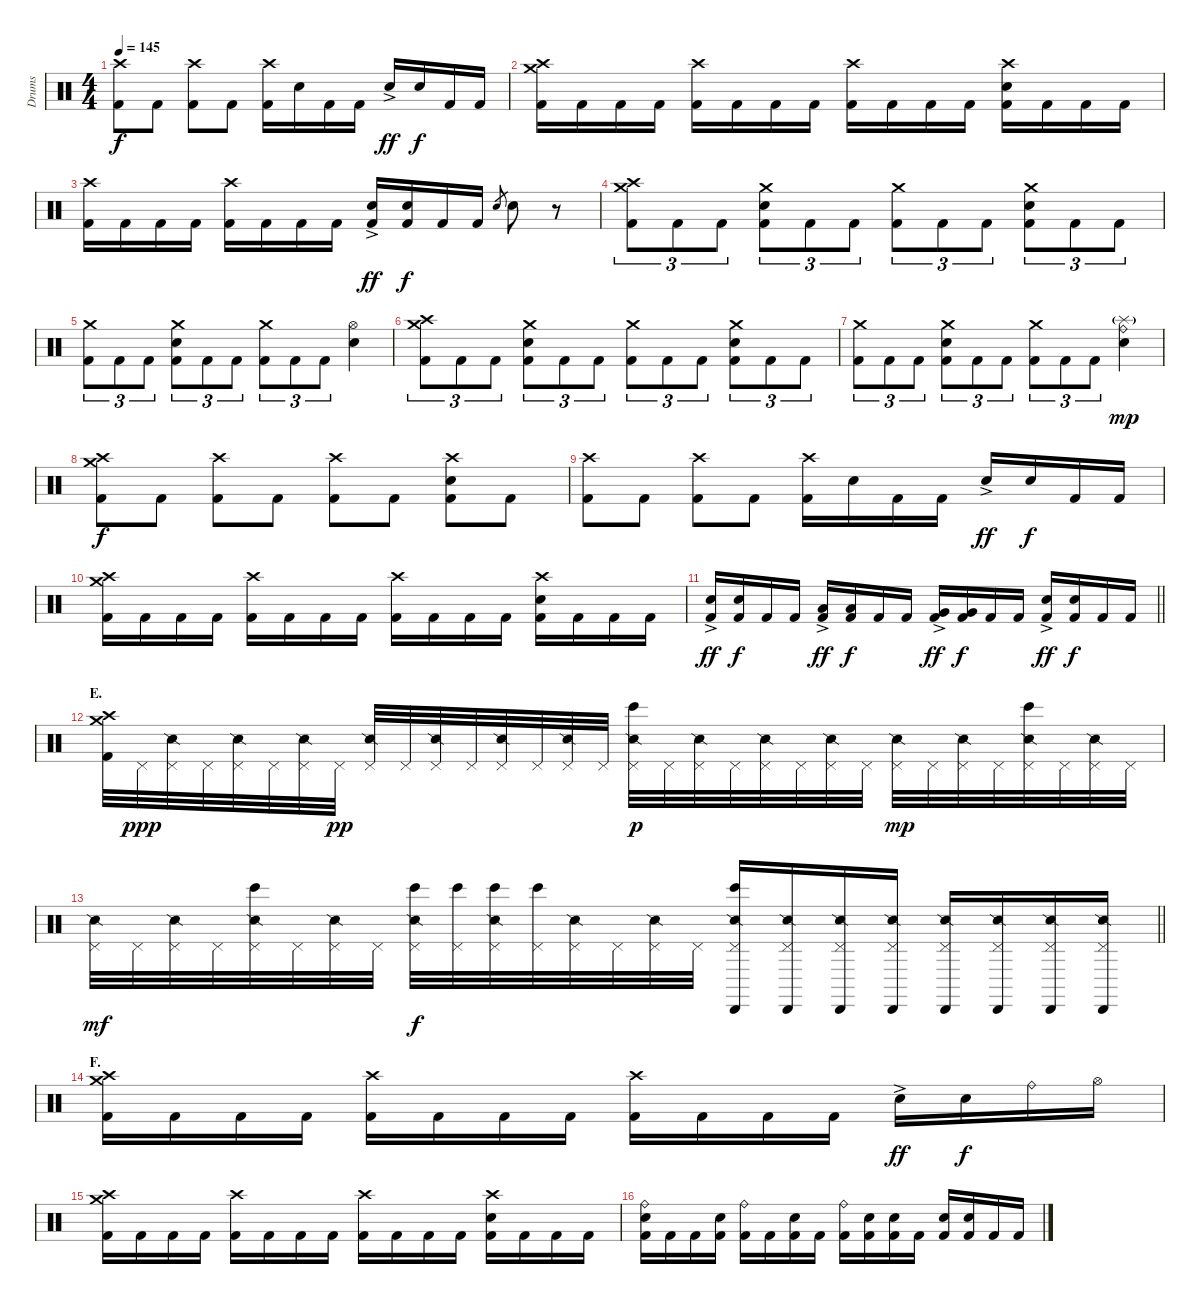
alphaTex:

\track ("Drums" "Drums") {instrument percussion}
\staff {score}
\articulation defaults
\ts (4 4)
\tempo 145
\clef neutral
\ks c
("Crash high (hit)" "Kick (hit) 2").8{dy f} "Kick (hit) 2".8 ("Crash high (hit)" "Kick (hit) 2").8 "Kick (hit) 2".8 ("Crash high (hit)" "Kick (hit) 2").16 "Electric Snare (hit)".16 "Kick (hit) 2".16 "Kick (hit) 2".16 "Electric Snare (hit)"{ac}.16{dy ff} "Electric Snare (hit)".16{dy f} "Kick (hit) 2".16 "Kick (hit) 2".16 |
("Crash medium (hit)" "Crash high (hit)" "Kick (hit) 2").16 "Kick (hit) 2".16 "Kick (hit) 2".16 "Kick (hit) 2".16 ("Crash high (hit)" "Kick (hit) 2").16 "Kick (hit) 2".16 "Kick (hit) 2".16 "Kick (hit) 2".16 ("Crash high (hit)" "Kick (hit) 2").16 "Kick (hit) 2".16 "Kick (hit) 2".16 "Kick (hit) 2".16 ("Crash high (hit)" "Electric Snare (hit)" "Kick (hit) 2").16 "Kick (hit) 2".16 "Kick (hit) 2".16 "Kick (hit) 2".16 |
("Crash high (hit)" "Kick (hit) 2").16 "Kick (hit) 2".16 "Kick (hit) 2".16 "Kick (hit) 2".16 ("Crash high (hit)" "Kick (hit) 2").16 "Kick (hit) 2".16 "Kick (hit) 2".16 "Kick (hit) 2".16 ("Electric Snare (hit)"{ac} "Kick (hit) 2").16{dy ff} ("Electric Snare (hit)" "Kick (hit) 2").16{dy f} "Kick (hit) 2".16 "Kick (hit) 2".16 "Electric Snare (hit)".8{gr} "Electric Snare (hit)".8 r.8 |
("Crash medium (hit)" "Crash high (hit)" "Kick (hit) 2").8{tu (3 2)} "Kick (hit) 2".8{tu (3 2)} "Kick (hit) 2".8{tu (3 2)} ("Crash medium (hit)" "Electric Snare (hit)" "Kick (hit) 2").8{tu (3 2)} "Kick (hit) 2".8{tu (3 2)} "Kick (hit) 2".8{tu (3 2)} ("Crash medium (hit)" "Kick (hit) 2").8{tu (3 2)} "Kick (hit) 2".8{tu (3 2)} "Kick (hit) 2".8{tu (3 2)} ("Crash medium (hit)" "Electric Snare (hit)" "Kick (hit) 2").8{tu (3 2)} "Kick (hit) 2".8{tu (3 2)} "Kick (hit) 2".8{tu (3 2)} |
("Crash medium (hit)" "Kick (hit) 2").8{tu (3 2)} "Kick (hit) 2".8{tu (3 2)} "Kick (hit) 2".8{tu (3 2)} ("Crash medium (hit)" "Electric Snare (hit)" "Kick (hit) 2").8{tu (3 2)} "Kick (hit) 2".8{tu (3 2)} "Kick (hit) 2".8{tu (3 2)} ("Crash medium (hit)" "Kick (hit) 2").8{tu (3 2)} "Kick (hit) 2".8{tu (3 2)} "Kick (hit) 2".8{tu (3 2)} ("Hi-Hat (open)" "Electric Snare (hit)").4 |
("Crash medium (hit)" "Crash high (hit)" "Kick (hit) 2").8{tu (3 2)} "Kick (hit) 2".8{tu (3 2)} "Kick (hit) 2".8{tu (3 2)} ("Crash medium (hit)" "Electric Snare (hit)" "Kick (hit) 2").8{tu (3 2)} "Kick (hit) 2".8{tu (3 2)} "Kick (hit) 2".8{tu (3 2)} ("Crash medium (hit)" "Kick (hit) 2").8{tu (3 2)} "Kick (hit) 2".8{tu (3 2)} "Kick (hit) 2".8{tu (3 2)} ("Crash medium (hit)" "Electric Snare (hit)" "Kick (hit) 2").8{tu (3 2)} "Kick (hit) 2".8{tu (3 2)} "Kick (hit) 2".8{tu (3 2)} |
("Crash medium (hit)" "Kick (hit) 2").8{tu (3 2)} "Kick (hit) 2".8{tu (3 2)} "Kick (hit) 2".8{tu (3 2)} ("Crash medium (hit)" "Electric Snare (hit)" "Kick (hit) 2").8{tu (3 2)} "Kick (hit) 2".8{tu (3 2)} "Kick (hit) 2".8{tu (3 2)} ("Crash medium (hit)" "Kick (hit) 2").8{tu (3 2)} "Kick (hit) 2".8{tu (3 2)} "Kick (hit) 2".8{tu (3 2)} ("Splash (hit)"{g} "Ride (bell)" "Electric Snare (hit)").4{dy mp} |
("Crash medium (hit)" "Crash high (hit)" "Kick (hit) 2").8{dy f} "Kick (hit) 2".8 ("Crash high (hit)" "Kick (hit) 2").8 "Kick (hit) 2".8 ("Crash high (hit)" "Kick (hit) 2").8 "Kick (hit) 2".8 ("Crash high (hit)" "Electric Snare (hit)" "Kick (hit) 2").8 "Kick (hit) 2".8 |
("Crash high (hit)" "Kick (hit) 2").8 "Kick (hit) 2".8 ("Crash high (hit)" "Kick (hit) 2").8 "Kick (hit) 2".8 ("Crash high (hit)" "Kick (hit) 2").16 "Electric Snare (hit)".16 "Kick (hit) 2".16 "Kick (hit) 2".16 "Electric Snare (hit)"{ac}.16{dy ff} "Electric Snare (hit)".16{dy f} "Kick (hit) 2".16 "Kick (hit) 2".16 |
("Crash medium (hit)" "Crash high (hit)" "Kick (hit) 2").16 "Kick (hit) 2".16 "Kick (hit) 2".16 "Kick (hit) 2".16 ("Crash high (hit)" "Kick (hit) 2").16 "Kick (hit) 2".16 "Kick (hit) 2".16 "Kick (hit) 2".16 ("Crash high (hit)" "Kick (hit) 2").16 "Kick (hit) 2".16 "Kick (hit) 2".16 "Kick (hit) 2".16 ("Crash high (hit)" "Electric Snare (hit)" "Kick (hit) 2").16 "Kick (hit) 2".16 "Kick (hit) 2".16 "Kick (hit) 2".16 |
\barLineRight lightlight
("Electric Snare (hit)"{ac} "Kick (hit) 2").16{dy ff} ("Electric Snare (hit)" "Kick (hit) 2").16{dy f} "Kick (hit) 2".16 "Kick (hit) 2".16 ("Low Tom (hit)"{ac} "Kick (hit) 2").16{dy ff} ("Low Tom (hit)" "Kick (hit) 2").16{dy f} "Kick (hit) 2".16 "Kick (hit) 2".16 ("Very Low Tom (hit)"{ac} "Kick (hit) 2").16{dy ff} ("Very Low Tom (hit)" "Kick (hit) 2").16{dy f} "Kick (hit) 2".16 "Kick (hit) 2".16 ("Electric Snare (hit)"{ac} "Kick (hit) 2").16{dy ff} ("Electric Snare (hit)" "Kick (hit) 2").16{dy f} "Kick (hit) 2".16 "Kick (hit) 2".16 |
\section ("" "E.")
("Crash medium (hit)" "Crash high (hit)" "Kick (hit) 2").32 "Pedal Hi-Hat (hit)".32{dy ppp} ("Pedal Hi-Hat (hit)" "Snare (side stick) 2").32 "Pedal Hi-Hat (hit)".32 ("Pedal Hi-Hat (hit)" "Snare (side stick) 2").32 "Pedal Hi-Hat (hit)".32 ("Pedal Hi-Hat (hit)" "Snare (side stick) 2").32 "Pedal Hi-Hat (hit)".32{dy pp} ("Pedal Hi-Hat (hit)" "Snare (side stick) 2").32 "Pedal Hi-Hat (hit)".32 ("Pedal Hi-Hat (hit)" "Snare (side stick) 2").32 "Pedal Hi-Hat (hit)".32 ("Pedal Hi-Hat (hit)" "Snare (side stick) 2").32 "Pedal Hi-Hat (hit)".32 ("Pedal Hi-Hat (hit)" "Snare (side stick) 2").32 "Pedal Hi-Hat (hit)".32 ("Pedal Hi-Hat (hit)" "Bongo High (hit)" "Snare (side stick) 2").32{dy p} "Pedal Hi-Hat (hit)".32 ("Pedal Hi-Hat (hit)" "Snare (side stick) 2").32 "Pedal Hi-Hat (hit)".32 ("Pedal Hi-Hat (hit)" "Snare (side stick) 2").32 "Pedal Hi-Hat (hit)".32 ("Pedal Hi-Hat (hit)" "Snare (side stick) 2").32 "Pedal Hi-Hat (hit)".32 ("Pedal Hi-Hat (hit)" "Snare (side stick) 2").32{dy mp} "Pedal Hi-Hat (hit)".32 ("Pedal Hi-Hat (hit)" "Snare (side stick) 2").32 "Pedal Hi-Hat (hit)".32 ("Pedal Hi-Hat (hit)" "Bongo High (hit)" "Snare (side stick) 2").32 "Pedal Hi-Hat (hit)".32 ("Pedal Hi-Hat (hit)" "Snare (side stick) 2").32 "Pedal Hi-Hat (hit)".32 |
\barLineRight lightlight
("Pedal Hi-Hat (hit)" "Snare (side stick) 2").32{dy mf} "Pedal Hi-Hat (hit)".32 ("Pedal Hi-Hat (hit)" "Snare (side stick) 2").32 "Pedal Hi-Hat (hit)".32 ("Pedal Hi-Hat (hit)" "Bongo High (hit)" "Snare (side stick) 2").32 "Pedal Hi-Hat (hit)".32 ("Pedal Hi-Hat (hit)" "Snare (side stick) 2").32 "Pedal Hi-Hat (hit)".32 ("Pedal Hi-Hat (hit)" "Bongo High (hit)" "Snare (side stick) 2").32{dy f} ("Pedal Hi-Hat (hit)" "Bongo High (hit)").32 ("Pedal Hi-Hat (hit)" "Bongo High (hit)" "Snare (side stick) 2").32 ("Pedal Hi-Hat (hit)" "Bongo High (hit)").32 ("Pedal Hi-Hat (hit)" "Snare (side stick) 2").32 "Pedal Hi-Hat (hit)".32 ("Pedal Hi-Hat (hit)" "Snare (side stick) 2").32 "Pedal Hi-Hat (hit)".32 ("Cabasa (hit)" "Pedal Hi-Hat (hit)" "Bongo High (hit)" "Snare (side stick) 2").16 ("Cabasa (hit)" "Pedal Hi-Hat (hit)" "Snare (side stick) 2").16 ("Cabasa (hit)" "Pedal Hi-Hat (hit)" "Snare (side stick) 2").16 ("Cabasa (hit)" "Pedal Hi-Hat (hit)" "Snare (side stick) 2").16 ("Cabasa (hit)" "Pedal Hi-Hat (hit)" "Snare (side stick) 2").16 ("Cabasa (hit)" "Pedal Hi-Hat (hit)" "Snare (side stick) 2").16 ("Cabasa (hit)" "Pedal Hi-Hat (hit)" "Snare (side stick) 2").16 ("Cabasa (hit)" "Pedal Hi-Hat (hit)" "Snare (side stick) 2").16 |
\section ("" "F.")
("Crash medium (hit)" "Crash high (hit)" "Kick (hit) 2").16 "Kick (hit) 2".16 "Kick (hit) 2".16 "Kick (hit) 2".16 ("Crash high (hit)" "Kick (hit) 2").16 "Kick (hit) 2".16 "Kick (hit) 2".16 "Kick (hit) 2".16 ("Crash high (hit)" "Kick (hit) 2").16 "Kick (hit) 2".16 "Kick (hit) 2".16 "Kick (hit) 2".16 "Electric Snare (hit)"{ac}.16{dy ff} "Electric Snare (hit)".16{dy f} "Ride (bell)".16 "Hi-Hat (open)".16 |
("Crash medium (hit)" "Crash high (hit)" "Kick (hit) 2").16 "Kick (hit) 2".16 "Kick (hit) 2".16 "Kick (hit) 2".16 ("Crash high (hit)" "Kick (hit) 2").16 "Kick (hit) 2".16 "Kick (hit) 2".16 "Kick (hit) 2".16 ("Crash high (hit)" "Kick (hit) 2").16 "Kick (hit) 2".16 "Kick (hit) 2".16 "Kick (hit) 2".16 ("Crash high (hit)" "Electric Snare (hit)" "Kick (hit) 2").16 "Kick (hit) 2".16 "Kick (hit) 2".16 "Kick (hit) 2".16 |
("Ride (bell)" "Electric Snare (hit)" "Kick (hit) 2").16 "Kick (hit) 2".16 "Kick (hit) 2".16 ("Electric Snare (hit)" "Kick (hit) 2").16 ("Ride (bell)" "Kick (hit) 2").16 "Kick (hit) 2".16 ("Electric Snare (hit)" "Kick (hit) 2").16 "Kick (hit) 2".16 ("Ride (bell)" "Kick (hit) 2").16 ("Electric Snare (hit)" "Kick (hit) 2").16 ("Electric Snare (hit)" "Kick (hit) 2").16 "Kick (hit) 2".16 ("Electric Snare (hit)" "Kick (hit) 2").16 ("Electric Snare (hit)" "Kick (hit) 2").16 "Kick (hit) 2".16 "Kick (hit) 2".16
